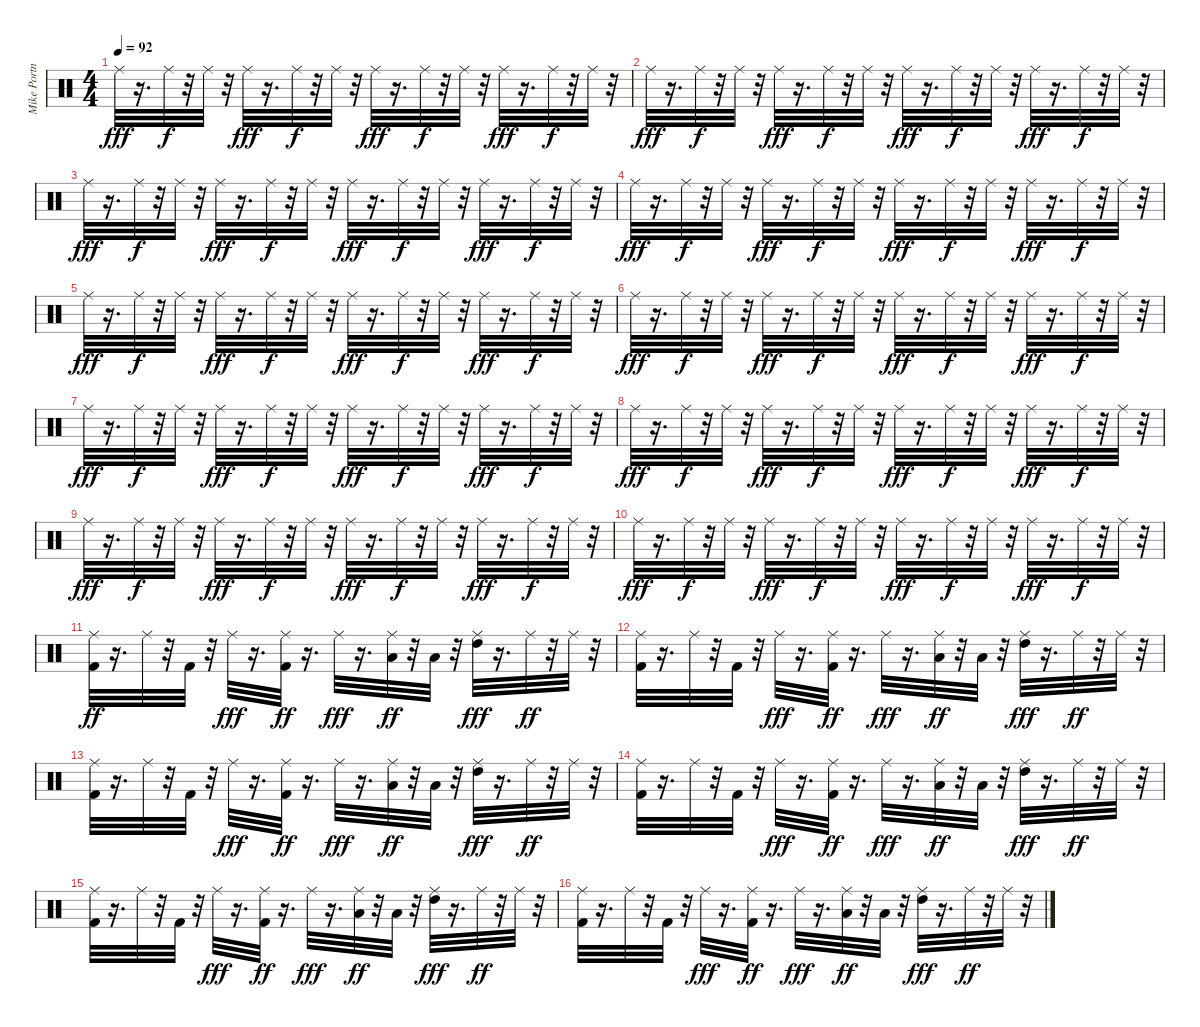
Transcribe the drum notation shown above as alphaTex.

\track ("Mike Portnoy" "Mike Portn") {instrument percussion}
\staff {score}
\articulation defaults
\ts (4 4)
\tempo 92
\clef neutral
\ks c "Ride (middle)".32{dy fff}
r.16{d} "Ride (middle)".32{dy f} r.32 "Ride (middle)".32 r.32 "Ride (middle)".32{dy fff} r.16{d} "Ride (middle)".32{dy f} r.32 "Ride (middle)".32 r.32 "Ride (middle)".32{dy fff} r.16{d} "Ride (middle)".32{dy f} r.32 "Ride (middle)".32 r.32 "Ride (middle)".32{dy fff} r.16{d} "Ride (middle)".32{dy f} r.32 "Ride (middle)".32 r.32 |
"Ride (middle)".32{dy fff} r.16{d} "Ride (middle)".32{dy f} r.32 "Ride (middle)".32 r.32 "Ride (middle)".32{dy fff} r.16{d} "Ride (middle)".32{dy f} r.32 "Ride (middle)".32 r.32 "Ride (middle)".32{dy fff} r.16{d} "Ride (middle)".32{dy f} r.32 "Ride (middle)".32 r.32 "Ride (middle)".32{dy fff} r.16{d} "Ride (middle)".32{dy f} r.32 "Ride (middle)".32 r.32 |
"Ride (middle)".32{dy fff} r.16{d} "Ride (middle)".32{dy f} r.32 "Ride (middle)".32 r.32 "Ride (middle)".32{dy fff} r.16{d} "Ride (middle)".32{dy f} r.32 "Ride (middle)".32 r.32 "Ride (middle)".32{dy fff} r.16{d} "Ride (middle)".32{dy f} r.32 "Ride (middle)".32 r.32 "Ride (middle)".32{dy fff} r.16{d} "Ride (middle)".32{dy f} r.32 "Ride (middle)".32 r.32 |
"Ride (middle)".32{dy fff} r.16{d} "Ride (middle)".32{dy f} r.32 "Ride (middle)".32 r.32 "Ride (middle)".32{dy fff} r.16{d} "Ride (middle)".32{dy f} r.32 "Ride (middle)".32 r.32 "Ride (middle)".32{dy fff} r.16{d} "Ride (middle)".32{dy f} r.32 "Ride (middle)".32 r.32 "Ride (middle)".32{dy fff} r.16{d} "Ride (middle)".32{dy f} r.32 "Ride (middle)".32 r.32 |
"Ride (middle)".32{dy fff} r.16{d} "Ride (middle)".32{dy f} r.32 "Ride (middle)".32 r.32 "Ride (middle)".32{dy fff} r.16{d} "Ride (middle)".32{dy f} r.32 "Ride (middle)".32 r.32 "Ride (middle)".32{dy fff} r.16{d} "Ride (middle)".32{dy f} r.32 "Ride (middle)".32 r.32 "Ride (middle)".32{dy fff} r.16{d} "Ride (middle)".32{dy f} r.32 "Ride (middle)".32 r.32 |
"Ride (middle)".32{dy fff} r.16{d} "Ride (middle)".32{dy f} r.32 "Ride (middle)".32 r.32 "Ride (middle)".32{dy fff} r.16{d} "Ride (middle)".32{dy f} r.32 "Ride (middle)".32 r.32 "Ride (middle)".32{dy fff} r.16{d} "Ride (middle)".32{dy f} r.32 "Ride (middle)".32 r.32 "Ride (middle)".32{dy fff} r.16{d} "Ride (middle)".32{dy f} r.32 "Ride (middle)".32 r.32 |
"Ride (middle)".32{dy fff} r.16{d} "Ride (middle)".32{dy f} r.32 "Ride (middle)".32 r.32 "Ride (middle)".32{dy fff} r.16{d} "Ride (middle)".32{dy f} r.32 "Ride (middle)".32 r.32 "Ride (middle)".32{dy fff} r.16{d} "Ride (middle)".32{dy f} r.32 "Ride (middle)".32 r.32 "Ride (middle)".32{dy fff} r.16{d} "Ride (middle)".32{dy f} r.32 "Ride (middle)".32 r.32 |
"Ride (middle)".32{dy fff} r.16{d} "Ride (middle)".32{dy f} r.32 "Ride (middle)".32 r.32 "Ride (middle)".32{dy fff} r.16{d} "Ride (middle)".32{dy f} r.32 "Ride (middle)".32 r.32 "Ride (middle)".32{dy fff} r.16{d} "Ride (middle)".32{dy f} r.32 "Ride (middle)".32 r.32 "Ride (middle)".32{dy fff} r.16{d} "Ride (middle)".32{dy f} r.32 "Ride (middle)".32 r.32 |
"Ride (middle)".32{dy fff} r.16{d} "Ride (middle)".32{dy f} r.32 "Ride (middle)".32 r.32 "Ride (middle)".32{dy fff} r.16{d} "Ride (middle)".32{dy f} r.32 "Ride (middle)".32 r.32 "Ride (middle)".32{dy fff} r.16{d} "Ride (middle)".32{dy f} r.32 "Ride (middle)".32 r.32 "Ride (middle)".32{dy fff} r.16{d} "Ride (middle)".32{dy f} r.32 "Ride (middle)".32 r.32 |
"Ride (middle)".32{dy fff} r.16{d} "Ride (middle)".32{dy f} r.32 "Ride (middle)".32 r.32 "Ride (middle)".32{dy fff} r.16{d} "Ride (middle)".32{dy f} r.32 "Ride (middle)".32 r.32 "Ride (middle)".32{dy fff} r.16{d} "Ride (middle)".32{dy f} r.32 "Ride (middle)".32 r.32 "Ride (middle)".32{dy fff} r.16{d} "Ride (middle)".32{dy f} r.32 "Ride (middle)".32 r.32 |
("Ride (middle)" "Kick (hit) 2").32{dy ff} r.16{d} "Ride (middle)".32 r.32 "Kick (hit) 2".32 r.32 "Ride (middle)".32{dy fff} r.16{d} ("Ride (middle)" "Kick (hit) 2").32{dy ff} r.16{d} "Ride (middle)".32{dy fff} r.16{d} ("Ride (middle)" "Low Tom (hit)").32{dy ff} r.32 "Low Tom (hit)".32 r.32 ("Ride (middle)" "High Tom (hit)").32{dy fff} r.16{d} "Ride (middle)".32{dy ff} r.32 "Ride (middle)".32 r.32 |
("Ride (middle)" "Kick (hit) 2").32 r.16{d} "Ride (middle)".32 r.32 "Kick (hit) 2".32 r.32 "Ride (middle)".32{dy fff} r.16{d} ("Ride (middle)" "Kick (hit) 2").32{dy ff} r.16{d} "Ride (middle)".32{dy fff} r.16{d} ("Ride (middle)" "Low Tom (hit)").32{dy ff} r.32 "Low Tom (hit)".32 r.32 ("Ride (middle)" "High Tom (hit)").32{dy fff} r.16{d} "Ride (middle)".32{dy ff} r.32 "Ride (middle)".32 r.32 |
("Ride (middle)" "Kick (hit) 2").32 r.16{d} "Ride (middle)".32 r.32 "Kick (hit) 2".32 r.32 "Ride (middle)".32{dy fff} r.16{d} ("Ride (middle)" "Kick (hit) 2").32{dy ff} r.16{d} "Ride (middle)".32{dy fff} r.16{d} ("Ride (middle)" "Low Tom (hit)").32{dy ff} r.32 "Low Tom (hit)".32 r.32 ("Ride (middle)" "High Tom (hit)").32{dy fff} r.16{d} "Ride (middle)".32{dy ff} r.32 "Ride (middle)".32 r.32 |
("Ride (middle)" "Kick (hit) 2").32 r.16{d} "Ride (middle)".32 r.32 "Kick (hit) 2".32 r.32 "Ride (middle)".32{dy fff} r.16{d} ("Ride (middle)" "Kick (hit) 2").32{dy ff} r.16{d} "Ride (middle)".32{dy fff} r.16{d} ("Ride (middle)" "Low Tom (hit)").32{dy ff} r.32 "Low Tom (hit)".32 r.32 ("Ride (middle)" "High Tom (hit)").32{dy fff} r.16{d} "Ride (middle)".32{dy ff} r.32 "Ride (middle)".32 r.32 |
("Ride (middle)" "Kick (hit) 2").32 r.16{d} "Ride (middle)".32 r.32 "Kick (hit) 2".32 r.32 "Ride (middle)".32{dy fff} r.16{d} ("Ride (middle)" "Kick (hit) 2").32{dy ff} r.16{d} "Ride (middle)".32{dy fff} r.16{d} ("Ride (middle)" "Low Tom (hit)").32{dy ff} r.32 "Low Tom (hit)".32 r.32 ("Ride (middle)" "High Tom (hit)").32{dy fff} r.16{d} "Ride (middle)".32{dy ff} r.32 "Ride (middle)".32 r.32 |
("Ride (middle)" "Kick (hit) 2").32 r.16{d} "Ride (middle)".32 r.32 "Kick (hit) 2".32 r.32 "Ride (middle)".32{dy fff} r.16{d} ("Ride (middle)" "Kick (hit) 2").32{dy ff} r.16{d} "Ride (middle)".32{dy fff} r.16{d} ("Ride (middle)" "Low Tom (hit)").32{dy ff} r.32 "Low Tom (hit)".32 r.32 ("Ride (middle)" "High Tom (hit)").32{dy fff} r.16{d} "Ride (middle)".32{dy ff} r.32 "Ride (middle)".32 r.32
